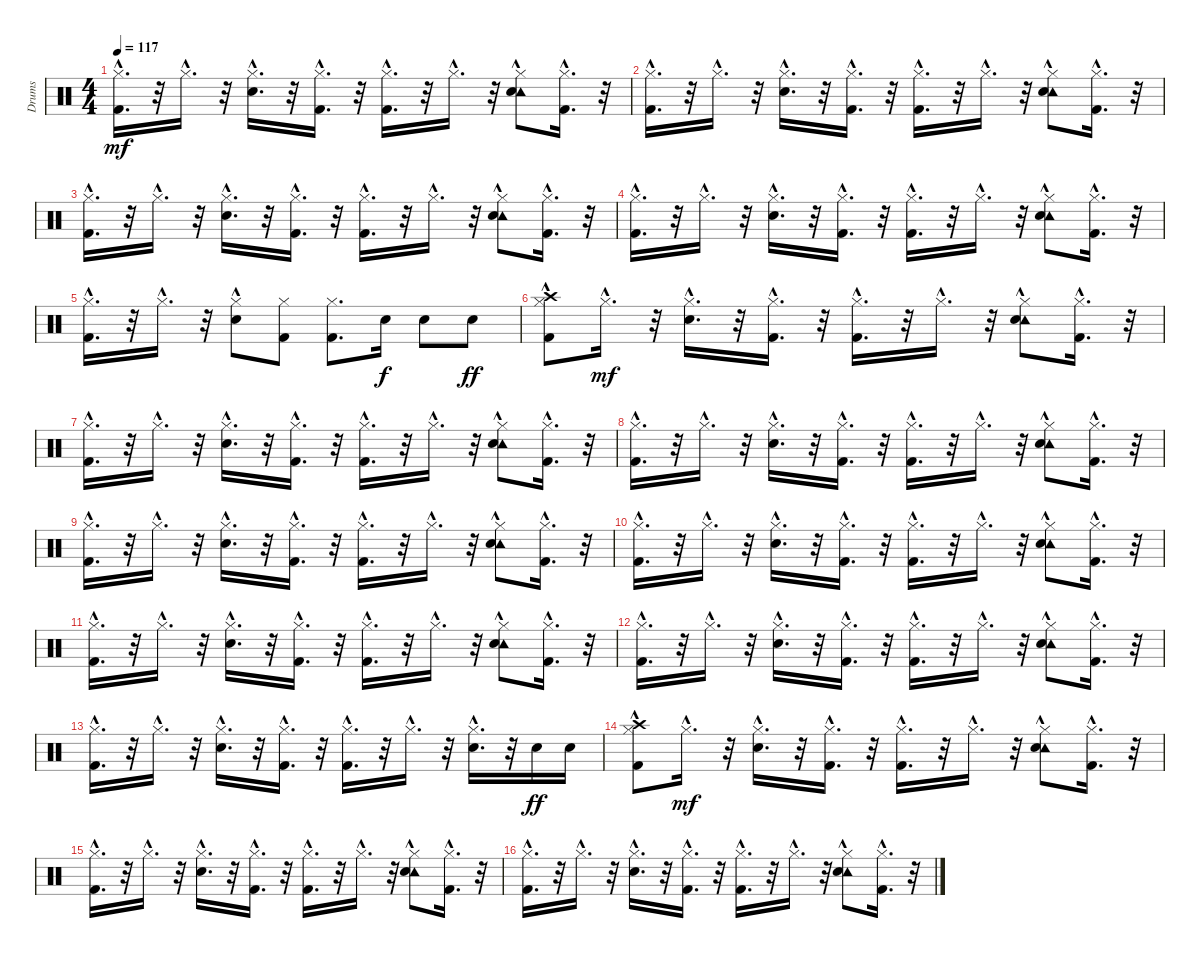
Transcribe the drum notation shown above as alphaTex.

\track ("Drums" "Drums") {instrument percussion}
\staff {score}
\articulation defaults
\ts (4 4)
\tempo 117
\clef neutral
\ks c
("Kick (hit) 2"{hac} "Hi-Hat (closed)"{hac}).16{d dy mf} r.32 "Hi-Hat (closed)"{hac}.16{d} r.32 ("Snare (hit) 2"{hac} "Hi-Hat (closed)"{hac}).16{d} r.32 ("Kick (hit) 2"{hac} "Hi-Hat (closed)"{hac}).16{d} r.32 ("Kick (hit) 2"{hac} "Hi-Hat (closed)"{hac}).16{d} r.32 "Hi-Hat (closed)"{hac}.16{d} r.32 ("Tambourine (hit)" "Snare (hit) 2"{hac} "Hi-Hat (closed)"{hac}).8 ("Kick (hit) 2"{hac} "Hi-Hat (closed)"{hac}).16{d} r.32 |
("Kick (hit) 2"{hac} "Hi-Hat (closed)"{hac}).16{d} r.32 "Hi-Hat (closed)"{hac}.16{d} r.32 ("Snare (hit) 2"{hac} "Hi-Hat (closed)"{hac}).16{d} r.32 ("Kick (hit) 2"{hac} "Hi-Hat (closed)"{hac}).16{d} r.32 ("Kick (hit) 2"{hac} "Hi-Hat (closed)"{hac}).16{d} r.32 "Hi-Hat (closed)"{hac}.16{d} r.32 ("Tambourine (hit)" "Snare (hit) 2"{hac} "Hi-Hat (closed)"{hac}).8 ("Kick (hit) 2"{hac} "Hi-Hat (closed)"{hac}).16{d} r.32 |
("Kick (hit) 2"{hac} "Hi-Hat (closed)"{hac}).16{d} r.32 "Hi-Hat (closed)"{hac}.16{d} r.32 ("Snare (hit) 2"{hac} "Hi-Hat (closed)"{hac}).16{d} r.32 ("Kick (hit) 2"{hac} "Hi-Hat (closed)"{hac}).16{d} r.32 ("Kick (hit) 2"{hac} "Hi-Hat (closed)"{hac}).16{d} r.32 "Hi-Hat (closed)"{hac}.16{d} r.32 ("Tambourine (hit)" "Snare (hit) 2"{hac} "Hi-Hat (closed)"{hac}).8 ("Kick (hit) 2"{hac} "Hi-Hat (closed)"{hac}).16{d} r.32 |
("Kick (hit) 2"{hac} "Hi-Hat (closed)"{hac}).16{d} r.32 "Hi-Hat (closed)"{hac}.16{d} r.32 ("Snare (hit) 2"{hac} "Hi-Hat (closed)"{hac}).16{d} r.32 ("Kick (hit) 2"{hac} "Hi-Hat (closed)"{hac}).16{d} r.32 ("Kick (hit) 2"{hac} "Hi-Hat (closed)"{hac}).16{d} r.32 "Hi-Hat (closed)"{hac}.16{d} r.32 ("Tambourine (hit)" "Snare (hit) 2"{hac} "Hi-Hat (closed)"{hac}).8 ("Kick (hit) 2"{hac} "Hi-Hat (closed)"{hac}).16{d} r.32 |
("Kick (hit) 2"{hac} "Hi-Hat (closed)"{hac}).16{d} r.32 "Hi-Hat (closed)"{hac}.16{d} r.32 ("Snare (hit) 2"{hac} "Hi-Hat (closed)"{hac}).8 ("Kick (hit) 2" "Hi-Hat (closed)").8 ("Kick (hit) 2" "Hi-Hat (closed)").8{d} "Snare (hit) 2".16{dy f} "Snare (hit) 2".8 "Snare (hit) 2".8{dy ff} |
("Kick (hit) 2"{hac} "Hi-Hat (closed)"{hac} "Crash high (hit)"{hac}).8 "Hi-Hat (closed)"{hac}.16{d dy mf} r.32 ("Snare (hit) 2"{hac} "Hi-Hat (closed)"{hac}).16{d} r.32 ("Kick (hit) 2"{hac} "Hi-Hat (closed)"{hac}).16{d} r.32 ("Kick (hit) 2"{hac} "Hi-Hat (closed)"{hac}).16{d} r.32 "Hi-Hat (closed)"{hac}.16{d} r.32 ("Tambourine (hit)" "Snare (hit) 2"{hac} "Hi-Hat (closed)"{hac}).8 ("Kick (hit) 2"{hac} "Hi-Hat (closed)"{hac}).16{d} r.32 |
("Kick (hit) 2"{hac} "Hi-Hat (closed)"{hac}).16{d} r.32 "Hi-Hat (closed)"{hac}.16{d} r.32 ("Snare (hit) 2"{hac} "Hi-Hat (closed)"{hac}).16{d} r.32 ("Kick (hit) 2"{hac} "Hi-Hat (closed)"{hac}).16{d} r.32 ("Kick (hit) 2"{hac} "Hi-Hat (closed)"{hac}).16{d} r.32 "Hi-Hat (closed)"{hac}.16{d} r.32 ("Tambourine (hit)" "Snare (hit) 2"{hac} "Hi-Hat (closed)"{hac}).8 ("Kick (hit) 2"{hac} "Hi-Hat (closed)"{hac}).16{d} r.32 |
("Kick (hit) 2"{hac} "Hi-Hat (closed)"{hac}).16{d} r.32 "Hi-Hat (closed)"{hac}.16{d} r.32 ("Snare (hit) 2"{hac} "Hi-Hat (closed)"{hac}).16{d} r.32 ("Kick (hit) 2"{hac} "Hi-Hat (closed)"{hac}).16{d} r.32 ("Kick (hit) 2"{hac} "Hi-Hat (closed)"{hac}).16{d} r.32 "Hi-Hat (closed)"{hac}.16{d} r.32 ("Tambourine (hit)" "Snare (hit) 2"{hac} "Hi-Hat (closed)"{hac}).8 ("Kick (hit) 2"{hac} "Hi-Hat (closed)"{hac}).16{d} r.32 |
("Kick (hit) 2"{hac} "Hi-Hat (closed)"{hac}).16{d} r.32 "Hi-Hat (closed)"{hac}.16{d} r.32 ("Snare (hit) 2"{hac} "Hi-Hat (closed)"{hac}).16{d} r.32 ("Kick (hit) 2"{hac} "Hi-Hat (closed)"{hac}).16{d} r.32 ("Kick (hit) 2"{hac} "Hi-Hat (closed)"{hac}).16{d} r.32 "Hi-Hat (closed)"{hac}.16{d} r.32 ("Tambourine (hit)" "Snare (hit) 2"{hac} "Hi-Hat (closed)"{hac}).8 ("Kick (hit) 2"{hac} "Hi-Hat (closed)"{hac}).16{d} r.32 |
("Kick (hit) 2"{hac} "Hi-Hat (closed)"{hac}).16{d} r.32 "Hi-Hat (closed)"{hac}.16{d} r.32 ("Snare (hit) 2"{hac} "Hi-Hat (closed)"{hac}).16{d} r.32 ("Kick (hit) 2"{hac} "Hi-Hat (closed)"{hac}).16{d} r.32 ("Kick (hit) 2"{hac} "Hi-Hat (closed)"{hac}).16{d} r.32 "Hi-Hat (closed)"{hac}.16{d} r.32 ("Tambourine (hit)" "Snare (hit) 2"{hac} "Hi-Hat (closed)"{hac}).8 ("Kick (hit) 2"{hac} "Hi-Hat (closed)"{hac}).16{d} r.32 |
("Kick (hit) 2"{hac} "Hi-Hat (closed)"{hac}).16{d} r.32 "Hi-Hat (closed)"{hac}.16{d} r.32 ("Snare (hit) 2"{hac} "Hi-Hat (closed)"{hac}).16{d} r.32 ("Kick (hit) 2"{hac} "Hi-Hat (closed)"{hac}).16{d} r.32 ("Kick (hit) 2"{hac} "Hi-Hat (closed)"{hac}).16{d} r.32 "Hi-Hat (closed)"{hac}.16{d} r.32 ("Tambourine (hit)" "Snare (hit) 2"{hac} "Hi-Hat (closed)"{hac}).8 ("Kick (hit) 2"{hac} "Hi-Hat (closed)"{hac}).16{d} r.32 |
("Kick (hit) 2"{hac} "Hi-Hat (closed)"{hac}).16{d} r.32 "Hi-Hat (closed)"{hac}.16{d} r.32 ("Snare (hit) 2"{hac} "Hi-Hat (closed)"{hac}).16{d} r.32 ("Kick (hit) 2"{hac} "Hi-Hat (closed)"{hac}).16{d} r.32 ("Kick (hit) 2"{hac} "Hi-Hat (closed)"{hac}).16{d} r.32 "Hi-Hat (closed)"{hac}.16{d} r.32 ("Tambourine (hit)" "Snare (hit) 2"{hac} "Hi-Hat (closed)"{hac}).8 ("Kick (hit) 2"{hac} "Hi-Hat (closed)"{hac}).16{d} r.32 |
("Kick (hit) 2"{hac} "Hi-Hat (closed)"{hac}).16{d} r.32 "Hi-Hat (closed)"{hac}.16{d} r.32 ("Snare (hit) 2"{hac} "Hi-Hat (closed)"{hac}).16{d} r.32 ("Kick (hit) 2"{hac} "Hi-Hat (closed)"{hac}).16{d} r.32 ("Kick (hit) 2"{hac} "Hi-Hat (closed)"{hac}).16{d} r.32 "Hi-Hat (closed)"{hac}.16{d} r.32 ("Snare (hit) 2"{hac} "Hi-Hat (closed)"{hac}).16{d} r.32 "Snare (hit) 2".16{dy ff} "Snare (hit) 2".16 |
("Kick (hit) 2"{hac} "Hi-Hat (closed)"{hac} "Crash high (hit)"{hac}).8 "Hi-Hat (closed)"{hac}.16{d dy mf} r.32 ("Snare (hit) 2"{hac} "Hi-Hat (closed)"{hac}).16{d} r.32 ("Kick (hit) 2"{hac} "Hi-Hat (closed)"{hac}).16{d} r.32 ("Kick (hit) 2"{hac} "Hi-Hat (closed)"{hac}).16{d} r.32 "Hi-Hat (closed)"{hac}.16{d} r.32 ("Tambourine (hit)" "Snare (hit) 2"{hac} "Hi-Hat (closed)"{hac}).8 ("Kick (hit) 2"{hac} "Hi-Hat (closed)"{hac}).16{d} r.32 |
("Kick (hit) 2"{hac} "Hi-Hat (closed)"{hac}).16{d} r.32 "Hi-Hat (closed)"{hac}.16{d} r.32 ("Snare (hit) 2"{hac} "Hi-Hat (closed)"{hac}).16{d} r.32 ("Kick (hit) 2"{hac} "Hi-Hat (closed)"{hac}).16{d} r.32 ("Kick (hit) 2"{hac} "Hi-Hat (closed)"{hac}).16{d} r.32 "Hi-Hat (closed)"{hac}.16{d} r.32 ("Tambourine (hit)" "Snare (hit) 2"{hac} "Hi-Hat (closed)"{hac}).8 ("Kick (hit) 2"{hac} "Hi-Hat (closed)"{hac}).16{d} r.32 |
("Kick (hit) 2"{hac} "Hi-Hat (closed)"{hac}).16{d} r.32 "Hi-Hat (closed)"{hac}.16{d} r.32 ("Snare (hit) 2"{hac} "Hi-Hat (closed)"{hac}).16{d} r.32 ("Kick (hit) 2"{hac} "Hi-Hat (closed)"{hac}).16{d} r.32 ("Kick (hit) 2"{hac} "Hi-Hat (closed)"{hac}).16{d} r.32 "Hi-Hat (closed)"{hac}.16{d} r.32 ("Tambourine (hit)" "Snare (hit) 2"{hac} "Hi-Hat (closed)"{hac}).8 ("Kick (hit) 2"{hac} "Hi-Hat (closed)"{hac}).16{d} r.32
